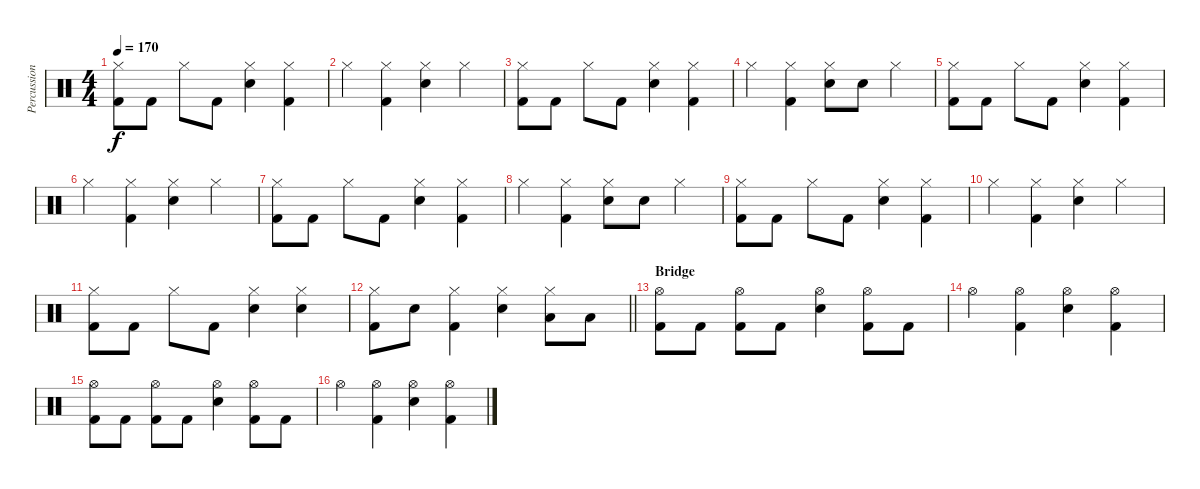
\track ("Percussion" "Percussion") {instrument percussion}
\staff {score}
\articulation defaults
\ts (4 4)
\tempo 170
\clef neutral
\ks c
("Hi-Hat (closed)" "Kick (hit) 2").8{dy f} "Kick (hit) 2".8 "Hi-Hat (closed)".8 "Kick (hit) 2".8 ("Hi-Hat (closed)" "Electric Snare (hit)").4 ("Hi-Hat (closed)" "Kick (hit) 2").4 |
"Hi-Hat (closed)".4 ("Hi-Hat (closed)" "Kick (hit) 2").4 ("Hi-Hat (closed)" "Electric Snare (hit)").4 "Hi-Hat (closed)".4 |
("Hi-Hat (closed)" "Kick (hit) 2").8 "Kick (hit) 2".8 "Hi-Hat (closed)".8 "Kick (hit) 2".8 ("Hi-Hat (closed)" "Electric Snare (hit)").4 ("Hi-Hat (closed)" "Kick (hit) 2").4 |
"Hi-Hat (closed)".4 ("Hi-Hat (closed)" "Kick (hit) 2").4 ("Hi-Hat (closed)" "Electric Snare (hit)").8 "Electric Snare (hit)".8 "Hi-Hat (closed)".4 |
("Hi-Hat (closed)" "Kick (hit) 2").8 "Kick (hit) 2".8 "Hi-Hat (closed)".8 "Kick (hit) 2".8 ("Hi-Hat (closed)" "Electric Snare (hit)").4 ("Hi-Hat (closed)" "Kick (hit) 2").4 |
"Hi-Hat (closed)".4 ("Hi-Hat (closed)" "Kick (hit) 2").4 ("Hi-Hat (closed)" "Electric Snare (hit)").4 "Hi-Hat (closed)".4 |
("Hi-Hat (closed)" "Kick (hit) 2").8 "Kick (hit) 2".8 "Hi-Hat (closed)".8 "Kick (hit) 2".8 ("Hi-Hat (closed)" "Electric Snare (hit)").4 ("Hi-Hat (closed)" "Kick (hit) 2").4 |
"Hi-Hat (closed)".4 ("Hi-Hat (closed)" "Kick (hit) 2").4 ("Hi-Hat (closed)" "Electric Snare (hit)").8 "Electric Snare (hit)".8 "Hi-Hat (closed)".4 |
("Hi-Hat (closed)" "Kick (hit) 2").8 "Kick (hit) 2".8 "Hi-Hat (closed)".8 "Kick (hit) 2".8 ("Hi-Hat (closed)" "Electric Snare (hit)").4 ("Hi-Hat (closed)" "Kick (hit) 2").4 |
"Hi-Hat (closed)".4 ("Hi-Hat (closed)" "Kick (hit) 2").4 ("Hi-Hat (closed)" "Electric Snare (hit)").4 "Hi-Hat (closed)".4 |
("Hi-Hat (closed)" "Kick (hit) 2").8 "Kick (hit) 2".8 "Hi-Hat (closed)".8 "Kick (hit) 2".8 ("Hi-Hat (closed)" "Electric Snare (hit)").4 ("Hi-Hat (closed)" "Electric Snare (hit)").4 |
\barLineRight lightlight
("Hi-Hat (closed)" "Kick (hit) 2").8 "Electric Snare (hit)".8 ("Hi-Hat (closed)" "Kick (hit) 2").4 ("Hi-Hat (closed)" "Electric Snare (hit)").4 ("Hi-Hat (closed)" "Low Floor Tom (hit)").8 "Low Floor Tom (hit)".8 |
\section ("" "Bridge")
("Hi-Hat (open)" "Kick (hit) 2").8 "Kick (hit) 2".8 ("Hi-Hat (open)" "Kick (hit) 2").8 "Kick (hit) 2".8 ("Hi-Hat (open)" "Electric Snare (hit)").4 ("Hi-Hat (open)" "Kick (hit) 2").8 "Kick (hit) 2".8 |
"Hi-Hat (open)".4 ("Hi-Hat (open)" "Kick (hit) 2").4 ("Hi-Hat (open)" "Electric Snare (hit)").4 ("Hi-Hat (open)" "Kick (hit) 2").4 |
("Hi-Hat (open)" "Kick (hit) 2").8 "Kick (hit) 2".8 ("Hi-Hat (open)" "Kick (hit) 2").8 "Kick (hit) 2".8 ("Hi-Hat (open)" "Electric Snare (hit)").4 ("Hi-Hat (open)" "Kick (hit) 2").8 "Kick (hit) 2".8 |
"Hi-Hat (open)".4 ("Hi-Hat (open)" "Kick (hit) 2").4 ("Hi-Hat (open)" "Electric Snare (hit)").4 ("Hi-Hat (open)" "Kick (hit) 2").4
